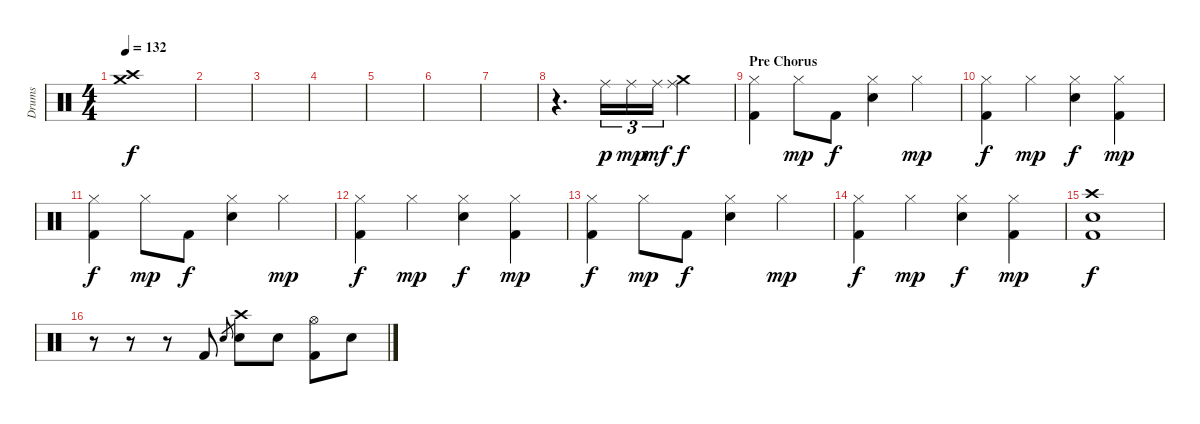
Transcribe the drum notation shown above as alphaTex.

\track ("Drums" "Drums") {instrument percussion}
\staff {score}
\articulation defaults
\ts (4 4)
\tempo 132
\clef neutral
\ks c
("Crash high (hit)" "Crash medium (hit)").1{dy f} |
|
|
|
|
|
|
r.4{d} "Ride (middle)".16{tu (3 2) dy p} "Ride (middle)".16{tu (3 2) dy mp} "Ride (middle)".16{tu (3 2) dy mf} ("Crash medium (hit)" "Ride (middle)").2{dy f} |
\section ("" "Pre Chorus")
("Hi-Hat (closed)" "Kick (hit) 2").4 "Hi-Hat (closed)".8{dy mp} "Kick (hit) 2".8{dy f} ("Hi-Hat (closed)" "Snare (hit) 2").4 "Hi-Hat (closed)".4{dy mp} |
("Hi-Hat (closed)" "Kick (hit) 2").4{dy f} "Hi-Hat (closed)".4{dy mp} ("Hi-Hat (closed)" "Snare (hit) 2").4{dy f} ("Hi-Hat (closed)" "Kick (hit) 2").4{dy mp} |
("Hi-Hat (closed)" "Kick (hit) 2").4{dy f} "Hi-Hat (closed)".8{dy mp} "Kick (hit) 2".8{dy f} ("Hi-Hat (closed)" "Snare (hit) 2").4 "Hi-Hat (closed)".4{dy mp} |
("Hi-Hat (closed)" "Kick (hit) 2").4{dy f} "Hi-Hat (closed)".4{dy mp} ("Hi-Hat (closed)" "Snare (hit) 2").4{dy f} ("Hi-Hat (closed)" "Kick (hit) 2").4{dy mp} |
("Hi-Hat (closed)" "Kick (hit) 2").4{dy f} "Hi-Hat (closed)".8{dy mp} "Kick (hit) 2".8{dy f} ("Hi-Hat (closed)" "Snare (hit) 2").4 "Hi-Hat (closed)".4{dy mp} |
("Hi-Hat (closed)" "Kick (hit) 2").4{dy f} "Hi-Hat (closed)".4{dy mp} ("Hi-Hat (closed)" "Snare (hit) 2").4{dy f} ("Hi-Hat (closed)" "Kick (hit) 2").4{dy mp} |
("Crash high (hit)" "Snare (hit) 2" "Kick (hit) 2").1{dy f} |
r.8 r.8 r.8 "Kick (hit) 2".8 "Snare (hit) 2".8{gr} ("Crash high (hit)" "Snare (hit) 2").8 "Snare (hit) 2".8 ("Hi-Hat (open)" "Kick (hit) 2").8 "Snare (hit) 2".8
